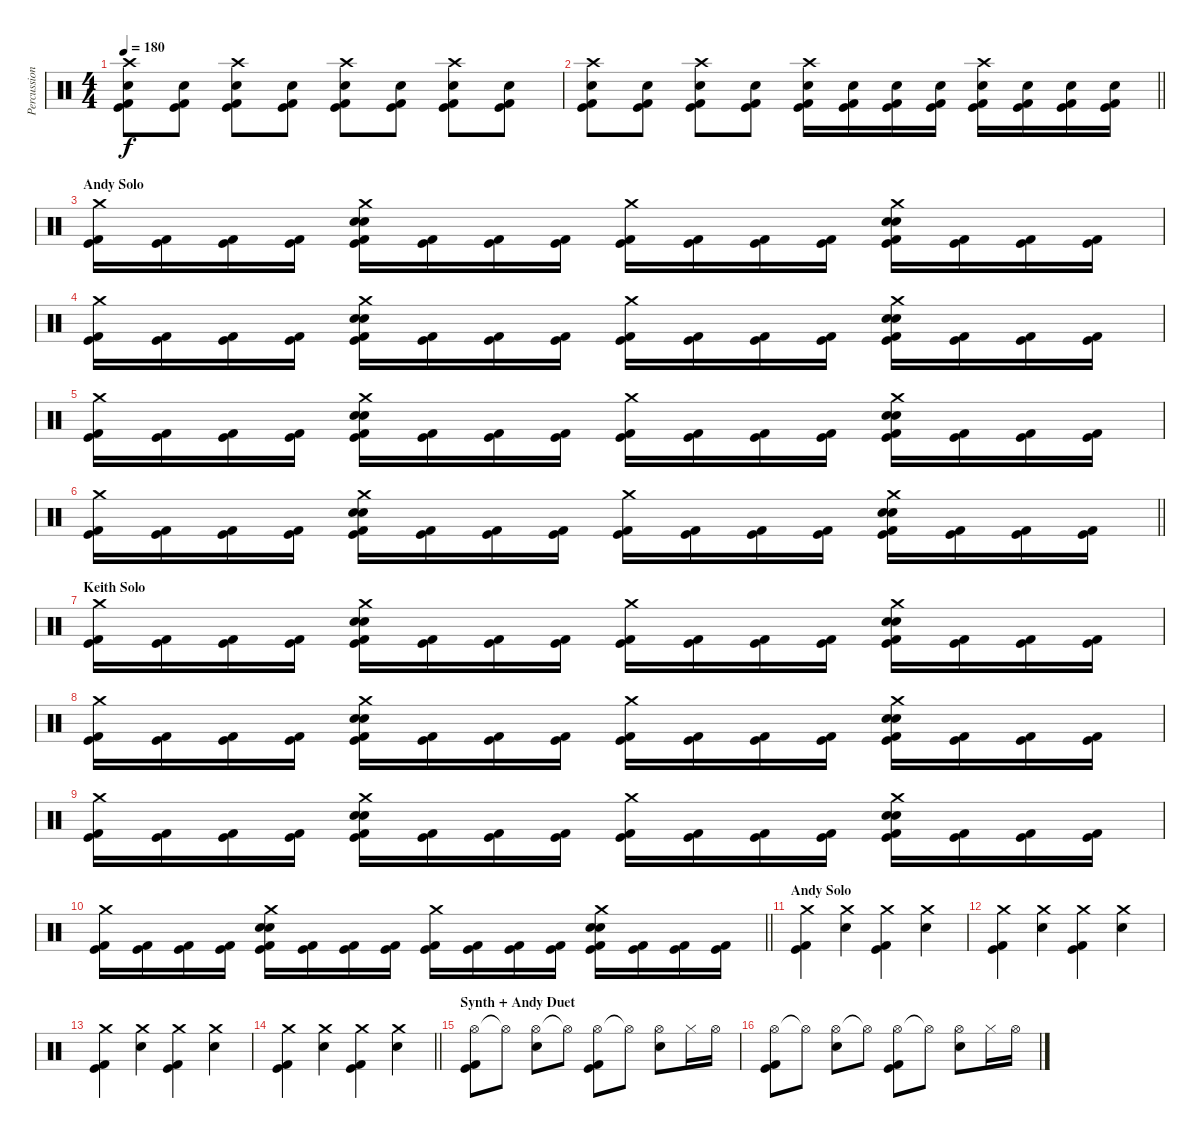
\track ("Percussion" "Percussion") {instrument percussion}
\staff {score}
\articulation defaults
\ts (4 4)
\tempo 180
\clef neutral
\ks c
("Crash high (hit)" "Electric Snare (hit)" "Kick (hit) 2" "Kick (hit)").8{dy f} ("Electric Snare (hit)" "Kick (hit) 2" "Kick (hit)").8 ("Crash high (hit)" "Electric Snare (hit)" "Kick (hit) 2" "Kick (hit)").8 ("Electric Snare (hit)" "Kick (hit) 2" "Kick (hit)").8 ("Crash high (hit)" "Electric Snare (hit)" "Kick (hit) 2" "Kick (hit)").8 ("Electric Snare (hit)" "Kick (hit) 2" "Kick (hit)").8 ("Crash high (hit)" "Electric Snare (hit)" "Kick (hit) 2" "Kick (hit)").8 ("Electric Snare (hit)" "Kick (hit) 2" "Kick (hit)").8 |
\barLineRight lightlight
("Crash high (hit)" "Electric Snare (hit)" "Kick (hit) 2" "Kick (hit)").8 ("Electric Snare (hit)" "Kick (hit) 2" "Kick (hit)").8 ("Crash high (hit)" "Electric Snare (hit)" "Kick (hit) 2" "Kick (hit)").8 ("Electric Snare (hit)" "Kick (hit) 2" "Kick (hit)").8 ("Crash high (hit)" "Electric Snare (hit)" "Kick (hit) 2" "Kick (hit)").16 ("Electric Snare (hit)" "Kick (hit) 2" "Kick (hit)").16 ("Electric Snare (hit)" "Kick (hit) 2" "Kick (hit)").16 ("Electric Snare (hit)" "Kick (hit) 2" "Kick (hit)").16 ("Crash high (hit)" "Electric Snare (hit)" "Kick (hit)" "Kick (hit) 2").16 ("Electric Snare (hit)" "Kick (hit)" "Kick (hit) 2").16 ("Electric Snare (hit)" "Kick (hit)" "Kick (hit) 2").16 ("Electric Snare (hit)" "Kick (hit)" "Kick (hit) 2").16 |
\section ("" "Andy Solo")
("Crash medium (hit)" "Kick (hit) 2" "Kick (hit)").16 ("Kick (hit) 2" "Kick (hit)").16 ("Kick (hit) 2" "Kick (hit)").16 ("Kick (hit) 2" "Kick (hit)").16 ("Crash medium (hit)" "Electric Snare (hit)" "Electric Snare (hit)" "Kick (hit) 2" "Kick (hit)").16 ("Kick (hit) 2" "Kick (hit)").16 ("Kick (hit) 2" "Kick (hit)").16 ("Kick (hit) 2" "Kick (hit)").16 ("Crash medium (hit)" "Kick (hit) 2" "Kick (hit)").16 ("Kick (hit) 2" "Kick (hit)").16 ("Kick (hit) 2" "Kick (hit)").16 ("Kick (hit) 2" "Kick (hit)").16 ("Crash medium (hit)" "Electric Snare (hit)" "Electric Snare (hit)" "Kick (hit) 2" "Kick (hit)").16 ("Kick (hit) 2" "Kick (hit)").16 ("Kick (hit) 2" "Kick (hit)").16 ("Kick (hit) 2" "Kick (hit)").16 |
("Crash medium (hit)" "Kick (hit) 2" "Kick (hit)").16 ("Kick (hit) 2" "Kick (hit)").16 ("Kick (hit) 2" "Kick (hit)").16 ("Kick (hit) 2" "Kick (hit)").16 ("Crash medium (hit)" "Electric Snare (hit)" "Electric Snare (hit)" "Kick (hit) 2" "Kick (hit)").16 ("Kick (hit) 2" "Kick (hit)").16 ("Kick (hit) 2" "Kick (hit)").16 ("Kick (hit) 2" "Kick (hit)").16 ("Crash medium (hit)" "Kick (hit) 2" "Kick (hit)").16 ("Kick (hit) 2" "Kick (hit)").16 ("Kick (hit) 2" "Kick (hit)").16 ("Kick (hit) 2" "Kick (hit)").16 ("Crash medium (hit)" "Electric Snare (hit)" "Electric Snare (hit)" "Kick (hit) 2" "Kick (hit)").16 ("Kick (hit) 2" "Kick (hit)").16 ("Kick (hit) 2" "Kick (hit)").16 ("Kick (hit) 2" "Kick (hit)").16 |
("Crash medium (hit)" "Kick (hit) 2" "Kick (hit)").16 ("Kick (hit) 2" "Kick (hit)").16 ("Kick (hit) 2" "Kick (hit)").16 ("Kick (hit) 2" "Kick (hit)").16 ("Crash medium (hit)" "Electric Snare (hit)" "Electric Snare (hit)" "Kick (hit) 2" "Kick (hit)").16 ("Kick (hit) 2" "Kick (hit)").16 ("Kick (hit) 2" "Kick (hit)").16 ("Kick (hit) 2" "Kick (hit)").16 ("Crash medium (hit)" "Kick (hit) 2" "Kick (hit)").16 ("Kick (hit) 2" "Kick (hit)").16 ("Kick (hit) 2" "Kick (hit)").16 ("Kick (hit) 2" "Kick (hit)").16 ("Crash medium (hit)" "Electric Snare (hit)" "Electric Snare (hit)" "Kick (hit) 2" "Kick (hit)").16 ("Kick (hit) 2" "Kick (hit)").16 ("Kick (hit) 2" "Kick (hit)").16 ("Kick (hit) 2" "Kick (hit)").16 |
\barLineRight lightlight
("Crash medium (hit)" "Kick (hit) 2" "Kick (hit)").16 ("Kick (hit) 2" "Kick (hit)").16 ("Kick (hit) 2" "Kick (hit)").16 ("Kick (hit) 2" "Kick (hit)").16 ("Crash medium (hit)" "Electric Snare (hit)" "Electric Snare (hit)" "Kick (hit) 2" "Kick (hit)").16 ("Kick (hit) 2" "Kick (hit)").16 ("Kick (hit) 2" "Kick (hit)").16 ("Kick (hit) 2" "Kick (hit)").16 ("Crash medium (hit)" "Kick (hit) 2" "Kick (hit)").16 ("Kick (hit) 2" "Kick (hit)").16 ("Kick (hit) 2" "Kick (hit)").16 ("Kick (hit) 2" "Kick (hit)").16 ("Crash medium (hit)" "Electric Snare (hit)" "Electric Snare (hit)" "Kick (hit) 2" "Kick (hit)").16 ("Kick (hit) 2" "Kick (hit)").16 ("Kick (hit) 2" "Kick (hit)").16 ("Kick (hit) 2" "Kick (hit)").16 |
\section ("" "Keith Solo")
("Crash medium (hit)" "Kick (hit) 2" "Kick (hit)").16 ("Kick (hit) 2" "Kick (hit)").16 ("Kick (hit) 2" "Kick (hit)").16 ("Kick (hit) 2" "Kick (hit)").16 ("Crash medium (hit)" "Electric Snare (hit)" "Electric Snare (hit)" "Kick (hit) 2" "Kick (hit)").16 ("Kick (hit) 2" "Kick (hit)").16 ("Kick (hit) 2" "Kick (hit)").16 ("Kick (hit) 2" "Kick (hit)").16 ("Crash medium (hit)" "Kick (hit) 2" "Kick (hit)").16 ("Kick (hit) 2" "Kick (hit)").16 ("Kick (hit) 2" "Kick (hit)").16 ("Kick (hit) 2" "Kick (hit)").16 ("Crash medium (hit)" "Electric Snare (hit)" "Electric Snare (hit)" "Kick (hit) 2" "Kick (hit)").16 ("Kick (hit) 2" "Kick (hit)").16 ("Kick (hit) 2" "Kick (hit)").16 ("Kick (hit) 2" "Kick (hit)").16 |
("Crash medium (hit)" "Kick (hit) 2" "Kick (hit)").16 ("Kick (hit) 2" "Kick (hit)").16 ("Kick (hit) 2" "Kick (hit)").16 ("Kick (hit) 2" "Kick (hit)").16 ("Crash medium (hit)" "Electric Snare (hit)" "Electric Snare (hit)" "Kick (hit) 2" "Kick (hit)").16 ("Kick (hit) 2" "Kick (hit)").16 ("Kick (hit) 2" "Kick (hit)").16 ("Kick (hit) 2" "Kick (hit)").16 ("Crash medium (hit)" "Kick (hit) 2" "Kick (hit)").16 ("Kick (hit) 2" "Kick (hit)").16 ("Kick (hit) 2" "Kick (hit)").16 ("Kick (hit) 2" "Kick (hit)").16 ("Crash medium (hit)" "Electric Snare (hit)" "Electric Snare (hit)" "Kick (hit) 2" "Kick (hit)").16 ("Kick (hit) 2" "Kick (hit)").16 ("Kick (hit) 2" "Kick (hit)").16 ("Kick (hit) 2" "Kick (hit)").16 |
("Crash medium (hit)" "Kick (hit) 2" "Kick (hit)").16 ("Kick (hit) 2" "Kick (hit)").16 ("Kick (hit) 2" "Kick (hit)").16 ("Kick (hit) 2" "Kick (hit)").16 ("Crash medium (hit)" "Electric Snare (hit)" "Electric Snare (hit)" "Kick (hit) 2" "Kick (hit)").16 ("Kick (hit) 2" "Kick (hit)").16 ("Kick (hit) 2" "Kick (hit)").16 ("Kick (hit) 2" "Kick (hit)").16 ("Crash medium (hit)" "Kick (hit) 2" "Kick (hit)").16 ("Kick (hit) 2" "Kick (hit)").16 ("Kick (hit) 2" "Kick (hit)").16 ("Kick (hit) 2" "Kick (hit)").16 ("Crash medium (hit)" "Electric Snare (hit)" "Electric Snare (hit)" "Kick (hit) 2" "Kick (hit)").16 ("Kick (hit) 2" "Kick (hit)").16 ("Kick (hit) 2" "Kick (hit)").16 ("Kick (hit) 2" "Kick (hit)").16 |
\barLineRight lightlight
("Crash medium (hit)" "Kick (hit) 2" "Kick (hit)").16 ("Kick (hit) 2" "Kick (hit)").16 ("Kick (hit) 2" "Kick (hit)").16 ("Kick (hit) 2" "Kick (hit)").16 ("Crash medium (hit)" "Electric Snare (hit)" "Electric Snare (hit)" "Kick (hit) 2" "Kick (hit)").16 ("Kick (hit) 2" "Kick (hit)").16 ("Kick (hit) 2" "Kick (hit)").16 ("Kick (hit) 2" "Kick (hit)").16 ("Crash medium (hit)" "Kick (hit) 2" "Kick (hit)").16 ("Kick (hit) 2" "Kick (hit)").16 ("Kick (hit) 2" "Kick (hit)").16 ("Kick (hit) 2" "Kick (hit)").16 ("Crash medium (hit)" "Electric Snare (hit)" "Electric Snare (hit)" "Kick (hit) 2" "Kick (hit)").16 ("Kick (hit) 2" "Kick (hit)").16 ("Kick (hit) 2" "Kick (hit)").16 ("Kick (hit) 2" "Kick (hit)").16 |
\section ("" "Andy Solo")
("Crash medium (hit)" "Kick (hit) 2" "Kick (hit)").4 ("Crash medium (hit)" "Electric Snare (hit)").4 ("Crash medium (hit)" "Kick (hit) 2" "Kick (hit)").4 ("Crash medium (hit)" "Electric Snare (hit)").4 |
("Crash medium (hit)" "Kick (hit) 2" "Kick (hit)").4 ("Crash medium (hit)" "Electric Snare (hit)").4 ("Crash medium (hit)" "Kick (hit) 2" "Kick (hit)").4 ("Crash medium (hit)" "Electric Snare (hit)").4 |
("Crash medium (hit)" "Kick (hit) 2" "Kick (hit)").4 ("Crash medium (hit)" "Electric Snare (hit)").4 ("Crash medium (hit)" "Kick (hit) 2" "Kick (hit)").4 ("Crash medium (hit)" "Electric Snare (hit)").4 |
\barLineRight lightlight
("Crash medium (hit)" "Kick (hit) 2" "Kick (hit)").4 ("Crash medium (hit)" "Electric Snare (hit)").4 ("Crash medium (hit)" "Kick (hit) 2" "Kick (hit)").4 ("Crash medium (hit)" "Electric Snare (hit)").4 |
\section ("" "Synth + Andy Duet")
("Hi-Hat (open)" "Kick (hit) 2" "Kick (hit)").8 "Hi-Hat (open)"{t}.8 ("Hi-Hat (open)" "Electric Snare (hit)").8 "Hi-Hat (open)"{t}.8 ("Hi-Hat (open)" "Kick (hit) 2" "Kick (hit)").8 "Hi-Hat (open)"{t}.8 ("Hi-Hat (open)" "Electric Snare (hit)").8 "Hi-Hat (closed)".16 "Hi-Hat (open)".16 |
("Hi-Hat (open)" "Kick (hit) 2" "Kick (hit)").8 "Hi-Hat (open)"{t}.8 ("Hi-Hat (open)" "Electric Snare (hit)").8 "Hi-Hat (open)"{t}.8 ("Hi-Hat (open)" "Kick (hit) 2" "Kick (hit)").8 "Hi-Hat (open)"{t}.8 ("Hi-Hat (open)" "Electric Snare (hit)").8 "Hi-Hat (closed)".16 "Hi-Hat (open)".16
